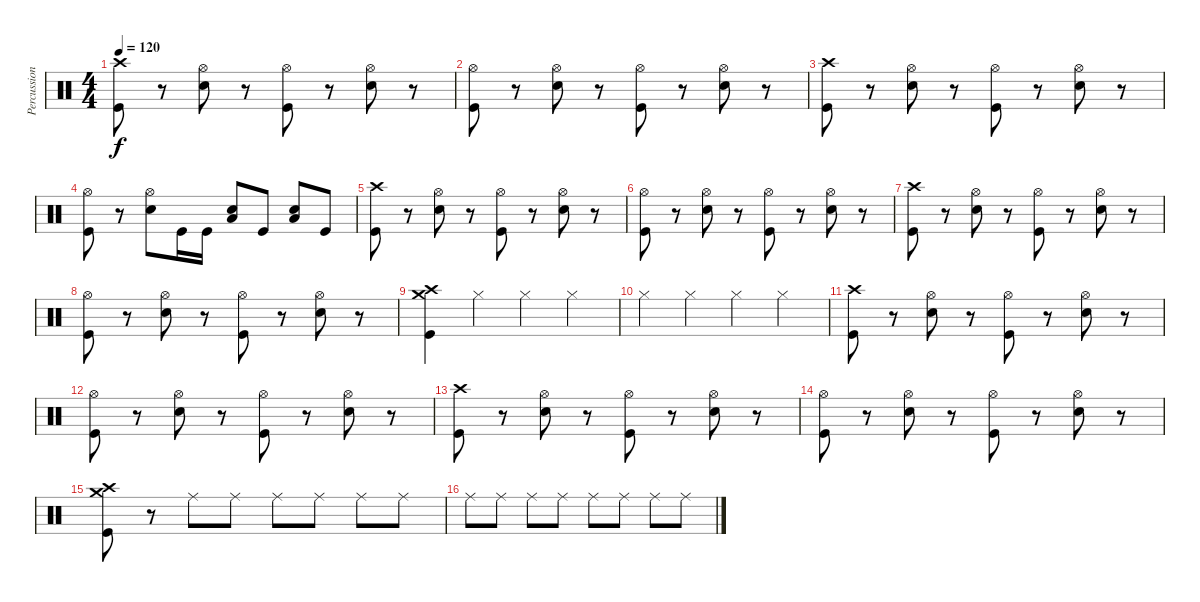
\track ("Percussion" "Percussion") {instrument percussion}
\staff {score}
\articulation defaults
\ts (4 4)
\tempo 120
\clef neutral
\ks c
("Crash high (hit)" "Kick (hit)").8{dy f} r.8 ("Electric Snare (hit)" "Hi-Hat (open)").8 r.8 ("Hi-Hat (open)" "Kick (hit)").8 r.8 ("Electric Snare (hit)" "Hi-Hat (open)").8 r.8 |
("Hi-Hat (open)" "Kick (hit)").8 r.8 ("Electric Snare (hit)" "Hi-Hat (open)").8 r.8 ("Hi-Hat (open)" "Kick (hit)").8 r.8 ("Electric Snare (hit)" "Hi-Hat (open)").8 r.8 |
("Crash high (hit)" "Kick (hit)").8 r.8 ("Electric Snare (hit)" "Hi-Hat (open)").8 r.8 ("Hi-Hat (open)" "Kick (hit)").8 r.8 ("Electric Snare (hit)" "Hi-Hat (open)").8 r.8 |
("Hi-Hat (open)" "Kick (hit)").8 r.8 ("Electric Snare (hit)" "Hi-Hat (open)").8 "Kick (hit)".16 "Kick (hit)".16 ("Low Tom (hit)" "Electric Snare (hit)").8 "Kick (hit)".8 ("Low Floor Tom (hit)" "Electric Snare (hit)").8 "Kick (hit)".8 |
("Crash high (hit)" "Kick (hit)").8 r.8 ("Electric Snare (hit)" "Hi-Hat (open)").8 r.8 ("Hi-Hat (open)" "Kick (hit)").8 r.8 ("Electric Snare (hit)" "Hi-Hat (open)").8 r.8 |
("Hi-Hat (open)" "Kick (hit)").8 r.8 ("Electric Snare (hit)" "Hi-Hat (open)").8 r.8 ("Hi-Hat (open)" "Kick (hit)").8 r.8 ("Electric Snare (hit)" "Hi-Hat (open)").8 r.8 |
("Crash high (hit)" "Kick (hit)").8 r.8 ("Electric Snare (hit)" "Hi-Hat (open)").8 r.8 ("Hi-Hat (open)" "Kick (hit)").8 r.8 ("Electric Snare (hit)" "Hi-Hat (open)").8 r.8 |
("Hi-Hat (open)" "Kick (hit)").8 r.8 ("Electric Snare (hit)" "Hi-Hat (open)").8 r.8 ("Hi-Hat (open)" "Kick (hit)").8 r.8 ("Electric Snare (hit)" "Hi-Hat (open)").8 r.8 |
("Crash high (hit)" "Crash medium (hit)" "Kick (hit)").4 "Hi-Hat (closed)".4 "Hi-Hat (closed)".4 "Hi-Hat (closed)".4 |
"Hi-Hat (closed)".4 "Hi-Hat (closed)".4 "Hi-Hat (closed)".4 "Hi-Hat (closed)".4 |
("Crash high (hit)" "Kick (hit)").8 r.8 ("Electric Snare (hit)" "Hi-Hat (open)").8 r.8 ("Hi-Hat (open)" "Kick (hit)").8 r.8 ("Electric Snare (hit)" "Hi-Hat (open)").8 r.8 |
("Hi-Hat (open)" "Kick (hit)").8 r.8 ("Electric Snare (hit)" "Hi-Hat (open)").8 r.8 ("Hi-Hat (open)" "Kick (hit)").8 r.8 ("Electric Snare (hit)" "Hi-Hat (open)").8 r.8 |
("Crash high (hit)" "Kick (hit)").8 r.8 ("Electric Snare (hit)" "Hi-Hat (open)").8 r.8 ("Hi-Hat (open)" "Kick (hit)").8 r.8 ("Electric Snare (hit)" "Hi-Hat (open)").8 r.8 |
("Hi-Hat (open)" "Kick (hit)").8 r.8 ("Electric Snare (hit)" "Hi-Hat (open)").8 r.8 ("Hi-Hat (open)" "Kick (hit)").8 r.8 ("Electric Snare (hit)" "Hi-Hat (open)").8 r.8 |
("Crash medium (hit)" "Crash high (hit)" "Kick (hit)").8 r.8 "Ride (middle)".8 "Ride (middle)".8 "Ride (middle)".8 "Ride (middle)".8 "Ride (middle)".8 "Ride (middle)".8 |
"Ride (middle)".8 "Ride (middle)".8 "Ride (middle)".8 "Ride (middle)".8 "Ride (middle)".8 "Ride (middle)".8 "Ride (middle)".8 "Ride (middle)".8
